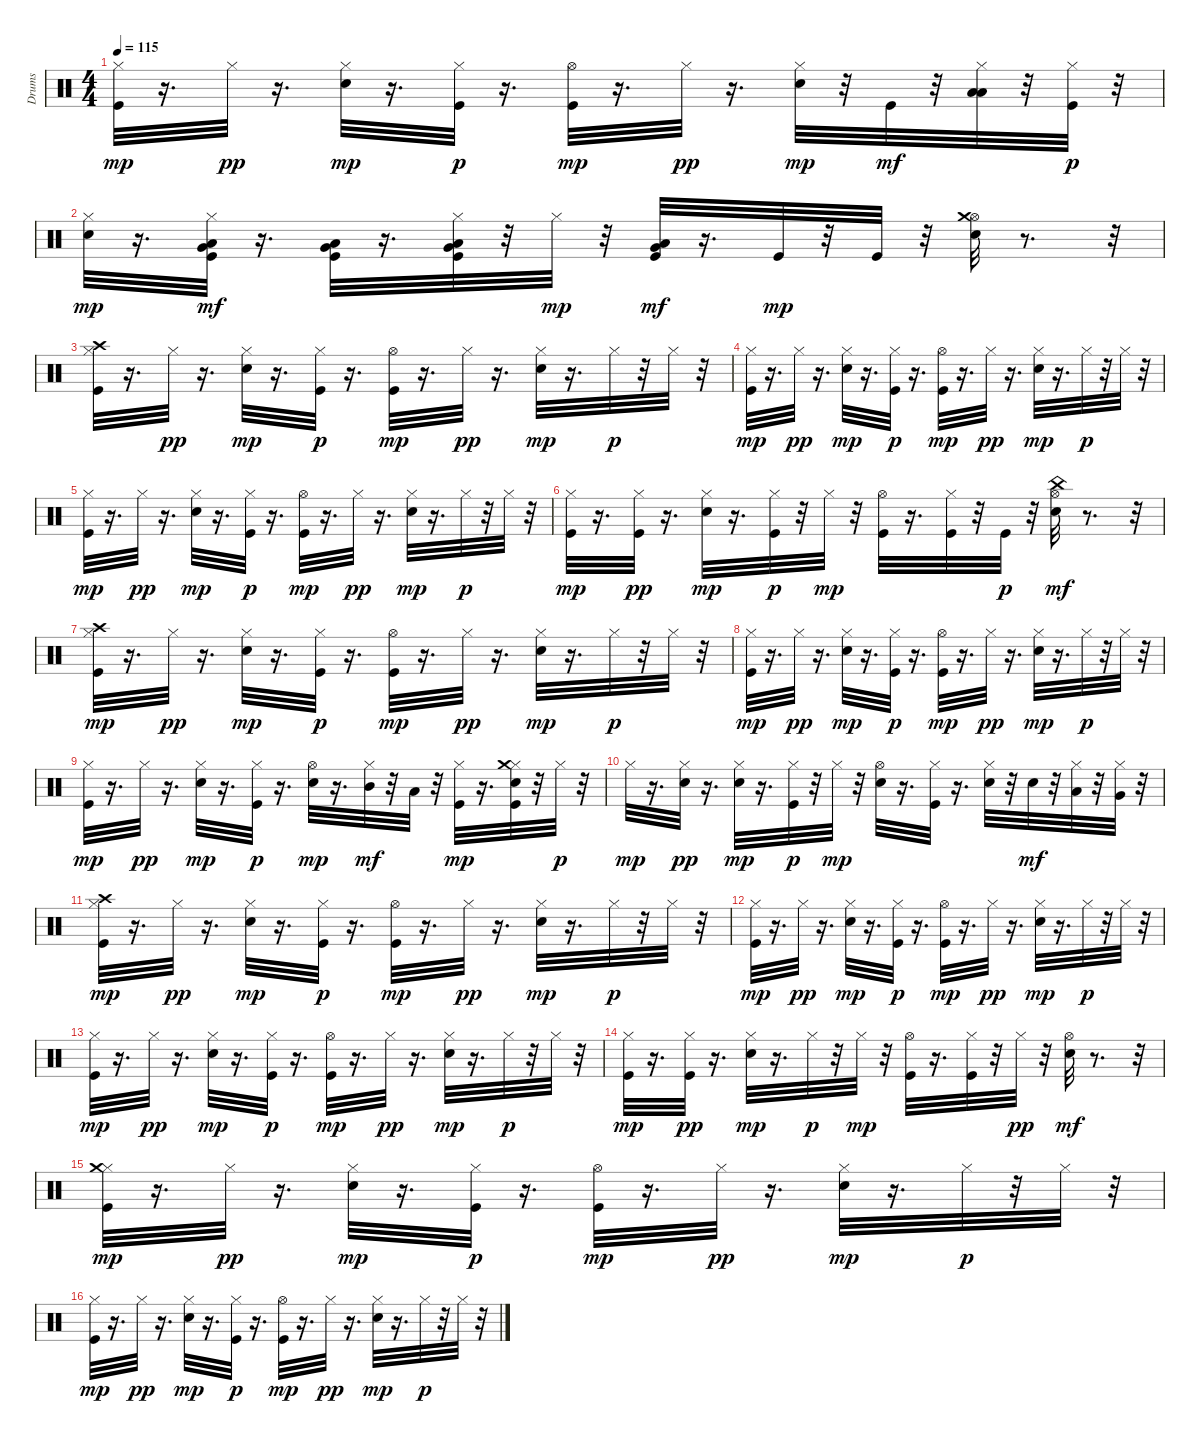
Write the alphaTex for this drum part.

\track ("Drums" "Drums") {instrument percussion}
\staff {score}
\articulation defaults
\ts (4 4)
\tempo 115
\clef neutral
\ks c
("Kick (hit)" "Hi-Hat (closed)").32{dy mp} r.16{d} "Hi-Hat (closed)".32{dy pp} r.16{d} ("Electric Snare (hit)" "Hi-Hat (closed)").32{dy mp} r.16{d} ("Kick (hit)" "Hi-Hat (closed)").32{dy p} r.16{d} ("Kick (hit)" "Hi-Hat (open)").32{dy mp} r.16{d} "Hi-Hat (closed)".32{dy pp} r.16{d} ("Electric Snare (hit)" "Hi-Hat (closed)").32{dy mp} r.32 "Kick (hit)".32{dy mf} r.32 ("Low Floor Tom (hit)" "Hi-Hat (closed)" "Low Tom (hit)").32 r.32 ("Kick (hit)" "Hi-Hat (closed)").32{dy p} r.32 |
("Electric Snare (hit)" "Hi-Hat (closed)").32{dy mp} r.16{d} ("Kick (hit)" "Hi-Hat (closed)" "Very Low Tom (hit)" "Low Tom (hit)").32{dy mf} r.16{d} ("Kick (hit)" "Very Low Tom (hit)" "Low Tom (hit)").32 r.16{d} ("Kick (hit)" "Hi-Hat (closed)" "Very Low Tom (hit)" "Low Tom (hit)").32 r.32 "Hi-Hat (closed)".32{dy mp} r.32 ("Kick (hit)" "Very Low Tom (hit)" "Low Tom (hit)").32{dy mf} r.16{d} "Kick (hit)".32{dy mp} r.32 "Kick (hit)".32 r.32 ("Electric Snare (hit)" "Hi-Hat (open)" "Crash medium (hit)").32 r.8{d} r.32 |
("Kick (hit)" "Hi-Hat (closed)" "Crash high (hit)").32 r.16{d} "Hi-Hat (closed)".32{dy pp} r.16{d} ("Electric Snare (hit)" "Hi-Hat (closed)").32{dy mp} r.16{d} ("Kick (hit)" "Hi-Hat (closed)").32{dy p} r.16{d} ("Kick (hit)" "Hi-Hat (open)").32{dy mp} r.16{d} "Hi-Hat (closed)".32{dy pp} r.16{d} ("Electric Snare (hit)" "Hi-Hat (closed)").32{dy mp} r.16{d} "Hi-Hat (closed)".32{dy p} r.32 "Hi-Hat (closed)".32 r.32 |
("Kick (hit)" "Hi-Hat (closed)").32{dy mp} r.16{d} "Hi-Hat (closed)".32{dy pp} r.16{d} ("Electric Snare (hit)" "Hi-Hat (closed)").32{dy mp} r.16{d} ("Kick (hit)" "Hi-Hat (closed)").32{dy p} r.16{d} ("Kick (hit)" "Hi-Hat (open)").32{dy mp} r.16{d} "Hi-Hat (closed)".32{dy pp} r.16{d} ("Electric Snare (hit)" "Hi-Hat (closed)").32{dy mp} r.16{d} "Hi-Hat (closed)".32{dy p} r.32 "Hi-Hat (closed)".32 r.32 |
("Kick (hit)" "Hi-Hat (closed)").32{dy mp} r.16{d} "Hi-Hat (closed)".32{dy pp} r.16{d} ("Electric Snare (hit)" "Hi-Hat (closed)").32{dy mp} r.16{d} ("Kick (hit)" "Hi-Hat (closed)").32{dy p} r.16{d} ("Kick (hit)" "Hi-Hat (open)").32{dy mp} r.16{d} "Hi-Hat (closed)".32{dy pp} r.16{d} ("Electric Snare (hit)" "Hi-Hat (closed)").32{dy mp} r.16{d} "Hi-Hat (closed)".32{dy p} r.32 "Hi-Hat (closed)".32 r.32 |
("Kick (hit)" "Hi-Hat (closed)").32{dy mp} r.16{d} ("Kick (hit)" "Hi-Hat (closed)").32{dy pp} r.16{d} ("Electric Snare (hit)" "Hi-Hat (closed)").32{dy mp} r.16{d} ("Kick (hit)" "Hi-Hat (closed)").32{dy p} r.32 "Hi-Hat (closed)".32{dy mp} r.32 ("Kick (hit)" "Hi-Hat (open)").32 r.16{d} ("Kick (hit)" "Hi-Hat (closed)").32 r.32 "Kick (hit)".32{dy p} r.32 ("Electric Snare (hit)" "Hi-Hat (open)" "China (hit)").32{dy mf} r.8{d} r.32 |
("Kick (hit)" "Hi-Hat (closed)" "Crash high (hit)").32{dy mp} r.16{d} "Hi-Hat (closed)".32{dy pp} r.16{d} ("Electric Snare (hit)" "Hi-Hat (closed)").32{dy mp} r.16{d} ("Kick (hit)" "Hi-Hat (closed)").32{dy p} r.16{d} ("Kick (hit)" "Hi-Hat (open)").32{dy mp} r.16{d} "Hi-Hat (closed)".32{dy pp} r.16{d} ("Electric Snare (hit)" "Hi-Hat (closed)").32{dy mp} r.16{d} "Hi-Hat (closed)".32{dy p} r.32 "Hi-Hat (closed)".32 r.32 |
("Kick (hit)" "Hi-Hat (closed)").32{dy mp} r.16{d} "Hi-Hat (closed)".32{dy pp} r.16{d} ("Electric Snare (hit)" "Hi-Hat (closed)").32{dy mp} r.16{d} ("Kick (hit)" "Hi-Hat (closed)").32{dy p} r.16{d} ("Kick (hit)" "Hi-Hat (open)").32{dy mp} r.16{d} "Hi-Hat (closed)".32{dy pp} r.16{d} ("Electric Snare (hit)" "Hi-Hat (closed)").32{dy mp} r.16{d} "Hi-Hat (closed)".32{dy p} r.32 "Hi-Hat (closed)".32 r.32 |
("Kick (hit)" "Hi-Hat (closed)").32{dy mp} r.16{d} "Hi-Hat (closed)".32{dy pp} r.16{d} ("Electric Snare (hit)" "Hi-Hat (closed)").32{dy mp} r.16{d} ("Kick (hit)" "Hi-Hat (closed)").32{dy p} r.16{d} ("Electric Snare (hit)" "Hi-Hat (open)").32{dy mp} r.16{d} ("Hi-Hat (closed)" "Mid Tom (hit)").32{dy mf} r.32 "Low Tom (hit)".32 r.32 ("Kick (hit)" "Hi-Hat (closed)").32{dy mp} r.16{d} ("Kick (hit)" "Electric Snare (hit)" "Hi-Hat (closed)" "Crash medium (hit)").32 r.32 "Hi-Hat (closed)".32{dy p} r.32 |
"Hi-Hat (closed)".32{dy mp} r.16{d} ("Electric Snare (hit)" "Hi-Hat (closed)").32{dy pp} r.16{d} ("Electric Snare (hit)" "Hi-Hat (closed)").32{dy mp} r.16{d} ("Kick (hit)" "Hi-Hat (closed)").32{dy p} r.32 "Hi-Hat (closed)".32{dy mp} r.32 ("Electric Snare (hit)" "Hi-Hat (open)").32 r.16{d} ("Kick (hit)" "Hi-Hat (closed)").32 r.16{d} ("Electric Snare (hit)" "Hi-Hat (closed)").32 r.32 "Electric Snare (hit)".32{dy mf} r.32 ("Hi-Hat (closed)" "Low Tom (hit)").32 r.32 ("Hi-Hat (closed)" "Very Low Tom (hit)").32 r.32 |
("Kick (hit)" "Hi-Hat (closed)" "Crash high (hit)").32{dy mp} r.16{d} "Hi-Hat (closed)".32{dy pp} r.16{d} ("Electric Snare (hit)" "Hi-Hat (closed)").32{dy mp} r.16{d} ("Kick (hit)" "Hi-Hat (closed)").32{dy p} r.16{d} ("Kick (hit)" "Hi-Hat (open)").32{dy mp} r.16{d} "Hi-Hat (closed)".32{dy pp} r.16{d} ("Electric Snare (hit)" "Hi-Hat (closed)").32{dy mp} r.16{d} "Hi-Hat (closed)".32{dy p} r.32 "Hi-Hat (closed)".32 r.32 |
("Kick (hit)" "Hi-Hat (closed)").32{dy mp} r.16{d} "Hi-Hat (closed)".32{dy pp} r.16{d} ("Electric Snare (hit)" "Hi-Hat (closed)").32{dy mp} r.16{d} ("Kick (hit)" "Hi-Hat (closed)").32{dy p} r.16{d} ("Kick (hit)" "Hi-Hat (open)").32{dy mp} r.16{d} "Hi-Hat (closed)".32{dy pp} r.16{d} ("Electric Snare (hit)" "Hi-Hat (closed)").32{dy mp} r.16{d} "Hi-Hat (closed)".32{dy p} r.32 "Hi-Hat (closed)".32 r.32 |
("Kick (hit)" "Hi-Hat (closed)").32{dy mp} r.16{d} "Hi-Hat (closed)".32{dy pp} r.16{d} ("Electric Snare (hit)" "Hi-Hat (closed)").32{dy mp} r.16{d} ("Kick (hit)" "Hi-Hat (closed)").32{dy p} r.16{d} ("Kick (hit)" "Hi-Hat (open)").32{dy mp} r.16{d} "Hi-Hat (closed)".32{dy pp} r.16{d} ("Electric Snare (hit)" "Hi-Hat (closed)").32{dy mp} r.16{d} "Hi-Hat (closed)".32{dy p} r.32 "Hi-Hat (closed)".32 r.32 |
("Kick (hit)" "Hi-Hat (closed)").32{dy mp} r.16{d} ("Kick (hit)" "Hi-Hat (closed)").32{dy pp} r.16{d} ("Electric Snare (hit)" "Hi-Hat (closed)").32{dy mp} r.16{d} "Hi-Hat (closed)".32{dy p} r.32 "Hi-Hat (closed)".32{dy mp} r.32 ("Kick (hit)" "Hi-Hat (open)").32 r.16{d} ("Kick (hit)" "Hi-Hat (closed)").32 r.32 "Hi-Hat (closed)".32{dy pp} r.32 ("Electric Snare (hit)" "Hi-Hat (open)").32{dy mf} r.8{d} r.32 |
("Kick (hit)" "Hi-Hat (closed)" "Crash medium (hit)").32{dy mp} r.16{d} "Hi-Hat (closed)".32{dy pp} r.16{d} ("Electric Snare (hit)" "Hi-Hat (closed)").32{dy mp} r.16{d} ("Kick (hit)" "Hi-Hat (closed)").32{dy p} r.16{d} ("Kick (hit)" "Hi-Hat (open)").32{dy mp} r.16{d} "Hi-Hat (closed)".32{dy pp} r.16{d} ("Electric Snare (hit)" "Hi-Hat (closed)").32{dy mp} r.16{d} "Hi-Hat (closed)".32{dy p} r.32 "Hi-Hat (closed)".32 r.32 |
("Kick (hit)" "Hi-Hat (closed)").32{dy mp} r.16{d} "Hi-Hat (closed)".32{dy pp} r.16{d} ("Electric Snare (hit)" "Hi-Hat (closed)").32{dy mp} r.16{d} ("Kick (hit)" "Hi-Hat (closed)").32{dy p} r.16{d} ("Kick (hit)" "Hi-Hat (open)").32{dy mp} r.16{d} "Hi-Hat (closed)".32{dy pp} r.16{d} ("Electric Snare (hit)" "Hi-Hat (closed)").32{dy mp} r.16{d} "Hi-Hat (closed)".32{dy p} r.32 "Hi-Hat (closed)".32 r.32
